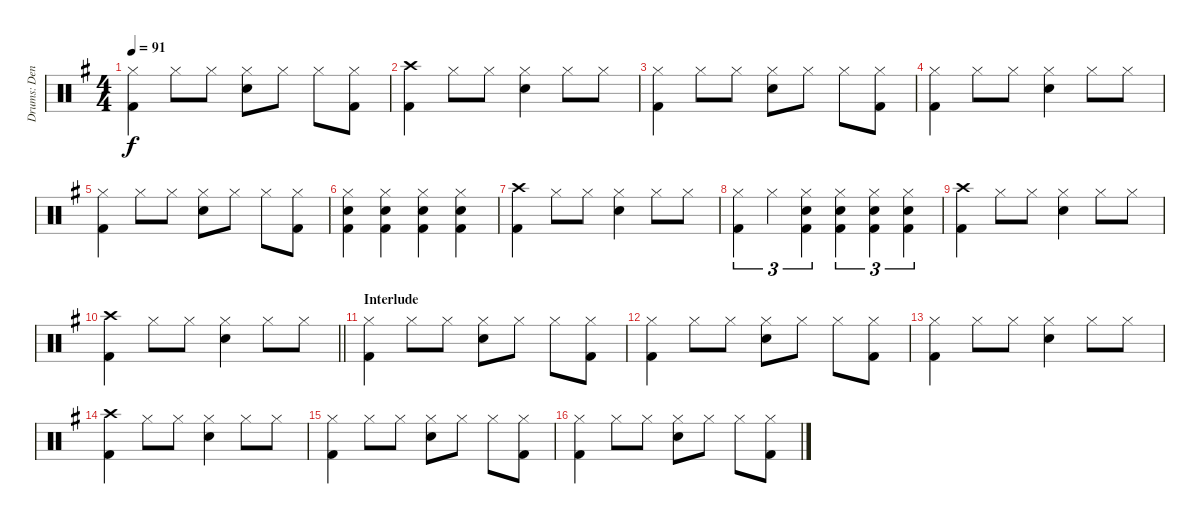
\track ("Drums: Denny" "Drums: Den") {instrument percussion}
\staff {score}
\articulation defaults
\ts (4 4)
\tempo 91
\clef neutral
\ks g
("Hi-Hat (closed)" "Kick (hit) 2").4{dy f} "Hi-Hat (closed)".8 "Hi-Hat (closed)".8 ("Hi-Hat (closed)" "Electric Snare (hit)").8 "Hi-Hat (closed)".8 "Hi-Hat (closed)".8 ("Hi-Hat (closed)" "Kick (hit) 2").8 |
("Crash high (hit)" "Kick (hit) 2").4 "Hi-Hat (closed)".8 "Hi-Hat (closed)".8 ("Hi-Hat (closed)" "Electric Snare (hit)").4 "Hi-Hat (closed)".8 "Hi-Hat (closed)".8 |
("Hi-Hat (closed)" "Kick (hit) 2").4 "Hi-Hat (closed)".8 "Hi-Hat (closed)".8 ("Hi-Hat (closed)" "Electric Snare (hit)").8 "Hi-Hat (closed)".8 "Hi-Hat (closed)".8 ("Hi-Hat (closed)" "Kick (hit) 2").8 |
("Hi-Hat (closed)" "Kick (hit) 2").4 "Hi-Hat (closed)".8 "Hi-Hat (closed)".8 ("Hi-Hat (closed)" "Electric Snare (hit)").4 "Hi-Hat (closed)".8 "Hi-Hat (closed)".8 |
("Hi-Hat (closed)" "Kick (hit) 2").4 "Hi-Hat (closed)".8 "Hi-Hat (closed)".8 ("Hi-Hat (closed)" "Electric Snare (hit)").8 "Hi-Hat (closed)".8 "Hi-Hat (closed)".8 ("Hi-Hat (closed)" "Kick (hit) 2").8 |
("Hi-Hat (closed)" "Electric Snare (hit)" "Kick (hit) 2").4 ("Hi-Hat (closed)" "Electric Snare (hit)" "Kick (hit) 2").4 ("Hi-Hat (closed)" "Electric Snare (hit)" "Kick (hit) 2").4 ("Hi-Hat (closed)" "Electric Snare (hit)" "Kick (hit) 2").4 |
("Crash high (hit)" "Kick (hit) 2").4 "Hi-Hat (closed)".8 "Hi-Hat (closed)".8 ("Hi-Hat (closed)" "Electric Snare (hit)").4 "Hi-Hat (closed)".8 "Hi-Hat (closed)".8 |
("Hi-Hat (closed)" "Kick (hit) 2").4{tu (3 2)} "Hi-Hat (closed)".4{tu (3 2)} ("Hi-Hat (closed)" "Electric Snare (hit)" "Kick (hit) 2").4{tu (3 2)} ("Hi-Hat (closed)" "Electric Snare (hit)" "Kick (hit) 2").4{tu (3 2)} ("Hi-Hat (closed)" "Electric Snare (hit)" "Kick (hit) 2").4{tu (3 2)} ("Hi-Hat (closed)" "Electric Snare (hit)" "Kick (hit) 2").4{tu (3 2)} |
("Crash high (hit)" "Kick (hit) 2").4 "Hi-Hat (closed)".8 "Hi-Hat (closed)".8 ("Hi-Hat (closed)" "Electric Snare (hit)").4 "Hi-Hat (closed)".8 "Hi-Hat (closed)".8 |
\barLineRight lightlight
("Crash high (hit)" "Kick (hit) 2").4 "Hi-Hat (closed)".8 "Hi-Hat (closed)".8 ("Hi-Hat (closed)" "Electric Snare (hit)").4 "Hi-Hat (closed)".8 "Hi-Hat (closed)".8 |
\section ("" "Interlude")
("Hi-Hat (closed)" "Kick (hit) 2").4 "Hi-Hat (closed)".8 "Hi-Hat (closed)".8 ("Hi-Hat (closed)" "Electric Snare (hit)").8 "Hi-Hat (closed)".8 "Hi-Hat (closed)".8 ("Hi-Hat (closed)" "Kick (hit) 2").8 |
("Hi-Hat (closed)" "Kick (hit) 2").4 "Hi-Hat (closed)".8 "Hi-Hat (closed)".8 ("Hi-Hat (closed)" "Electric Snare (hit)").8 "Hi-Hat (closed)".8 "Hi-Hat (closed)".8 ("Hi-Hat (closed)" "Kick (hit) 2").8 |
("Hi-Hat (closed)" "Kick (hit) 2").4 "Hi-Hat (closed)".8 "Hi-Hat (closed)".8 ("Hi-Hat (closed)" "Electric Snare (hit)").4 "Hi-Hat (closed)".8 "Hi-Hat (closed)".8 |
("Crash high (hit)" "Kick (hit) 2").4 "Hi-Hat (closed)".8 "Hi-Hat (closed)".8 ("Hi-Hat (closed)" "Electric Snare (hit)").4 "Hi-Hat (closed)".8 "Hi-Hat (closed)".8 |
("Hi-Hat (closed)" "Kick (hit) 2").4 "Hi-Hat (closed)".8 "Hi-Hat (closed)".8 ("Hi-Hat (closed)" "Electric Snare (hit)").8 "Hi-Hat (closed)".8 "Hi-Hat (closed)".8 ("Hi-Hat (closed)" "Kick (hit) 2").8 |
("Hi-Hat (closed)" "Kick (hit) 2").4 "Hi-Hat (closed)".8 "Hi-Hat (closed)".8 ("Hi-Hat (closed)" "Electric Snare (hit)").8 "Hi-Hat (closed)".8 "Hi-Hat (closed)".8 ("Hi-Hat (closed)" "Kick (hit) 2").8
